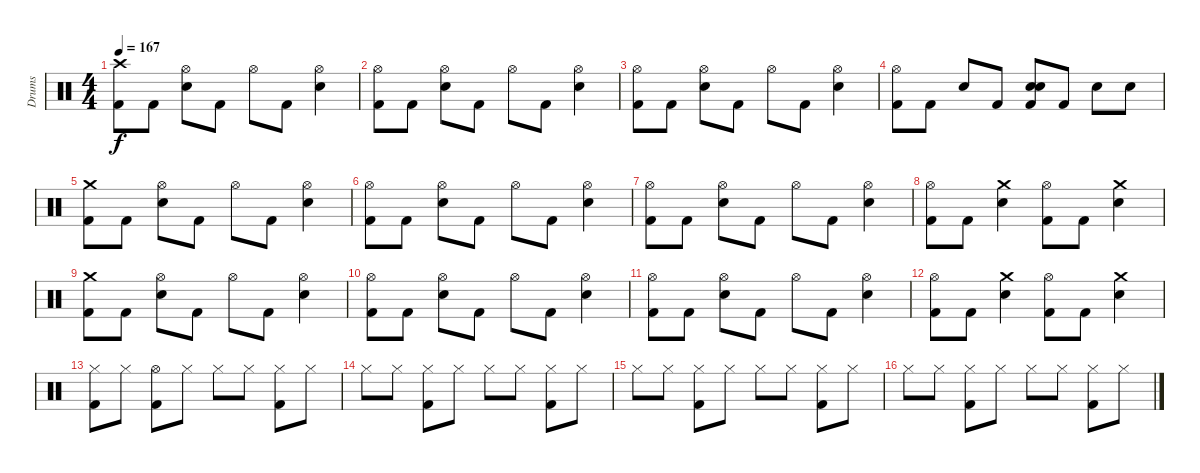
\track ("Drums" "Drums") {instrument percussion}
\staff {score}
\articulation defaults
\ts (4 4)
\tempo 167
\clef neutral
\ks c
("Crash high (hit)" "Kick (hit) 2").8{dy f} "Kick (hit) 2".8 ("Hi-Hat (open)" "Snare (hit) 2").8 "Kick (hit) 2".8 "Hi-Hat (open)".8 "Kick (hit) 2".8 ("Hi-Hat (open)" "Snare (hit) 2").4 |
("Hi-Hat (open)" "Kick (hit) 2").8 "Kick (hit) 2".8 ("Hi-Hat (open)" "Snare (hit) 2").8 "Kick (hit) 2".8 "Hi-Hat (open)".8 "Kick (hit) 2".8 ("Hi-Hat (open)" "Snare (hit) 2").4 |
("Hi-Hat (open)" "Kick (hit) 2").8 "Kick (hit) 2".8 ("Hi-Hat (open)" "Snare (hit) 2").8 "Kick (hit) 2".8 "Hi-Hat (open)".8 "Kick (hit) 2".8 ("Hi-Hat (open)" "Snare (hit) 2").4 |
("Hi-Hat (open)" "Kick (hit) 2").8 "Kick (hit) 2".8 "Snare (hit) 2".8 "Kick (hit) 2".8 ("Snare (hit)" "Snare (hit) 2" "Kick (hit) 2").8 "Kick (hit) 2".8 "Snare (hit) 2".8 "Snare (hit) 2".8 |
("Crash medium (hit)" "Kick (hit) 2").8 "Kick (hit) 2".8 ("Hi-Hat (open)" "Snare (hit) 2").8 "Kick (hit) 2".8 "Hi-Hat (open)".8 "Kick (hit) 2".8 ("Hi-Hat (open)" "Snare (hit) 2").4 |
("Hi-Hat (open)" "Kick (hit) 2").8 "Kick (hit) 2".8 ("Hi-Hat (open)" "Snare (hit) 2").8 "Kick (hit) 2".8 "Hi-Hat (open)".8 "Kick (hit) 2".8 ("Hi-Hat (open)" "Snare (hit) 2").4 |
("Hi-Hat (open)" "Kick (hit) 2").8 "Kick (hit) 2".8 ("Hi-Hat (open)" "Snare (hit) 2").8 "Kick (hit) 2".8 "Hi-Hat (open)".8 "Kick (hit) 2".8 ("Hi-Hat (open)" "Snare (hit) 2").4 |
("Hi-Hat (open)" "Kick (hit) 2").8 "Kick (hit) 2".8 ("Crash medium (hit)" "Snare (hit) 2").4 ("Hi-Hat (open)" "Kick (hit) 2").8 "Kick (hit) 2".8 ("Crash medium (hit)" "Snare (hit) 2").4 |
("Crash medium (hit)" "Kick (hit) 2").8 "Kick (hit) 2".8 ("Hi-Hat (open)" "Snare (hit) 2").8 "Kick (hit) 2".8 "Hi-Hat (open)".8 "Kick (hit) 2".8 ("Hi-Hat (open)" "Snare (hit) 2").4 |
("Hi-Hat (open)" "Kick (hit) 2").8 "Kick (hit) 2".8 ("Hi-Hat (open)" "Snare (hit) 2").8 "Kick (hit) 2".8 "Hi-Hat (open)".8 "Kick (hit) 2".8 ("Hi-Hat (open)" "Snare (hit) 2").4 |
("Hi-Hat (open)" "Kick (hit) 2").8 "Kick (hit) 2".8 ("Hi-Hat (open)" "Snare (hit) 2").8 "Kick (hit) 2".8 "Hi-Hat (open)".8 "Kick (hit) 2".8 ("Hi-Hat (open)" "Snare (hit) 2").4 |
("Hi-Hat (open)" "Kick (hit) 2").8 "Kick (hit) 2".8 ("Crash medium (hit)" "Snare (hit) 2").4 ("Hi-Hat (open)" "Kick (hit) 2").8 "Kick (hit) 2".8 ("Crash medium (hit)" "Snare (hit) 2").4 |
("Hi-Hat (closed)" "Kick (hit) 2").8 "Hi-Hat (closed)".8 ("Hi-Hat (open)" "Kick (hit) 2").8 "Hi-Hat (closed)".8 "Hi-Hat (closed)".8 "Hi-Hat (closed)".8 ("Hi-Hat (closed)" "Kick (hit) 2").8 "Hi-Hat (closed)".8 |
"Hi-Hat (closed)".8 "Hi-Hat (closed)".8 ("Hi-Hat (closed)" "Kick (hit) 2").8 "Hi-Hat (closed)".8 "Hi-Hat (closed)".8 "Hi-Hat (closed)".8 ("Hi-Hat (closed)" "Kick (hit) 2").8 "Hi-Hat (closed)".8 |
"Hi-Hat (closed)".8 "Hi-Hat (closed)".8 ("Hi-Hat (closed)" "Kick (hit) 2").8 "Hi-Hat (closed)".8 "Hi-Hat (closed)".8 "Hi-Hat (closed)".8 ("Hi-Hat (closed)" "Kick (hit) 2").8 "Hi-Hat (closed)".8 |
"Hi-Hat (closed)".8 "Hi-Hat (closed)".8 ("Hi-Hat (closed)" "Kick (hit) 2").8 "Hi-Hat (closed)".8 "Hi-Hat (closed)".8 "Hi-Hat (closed)".8 ("Hi-Hat (closed)" "Kick (hit) 2").8 "Hi-Hat (closed)".8
